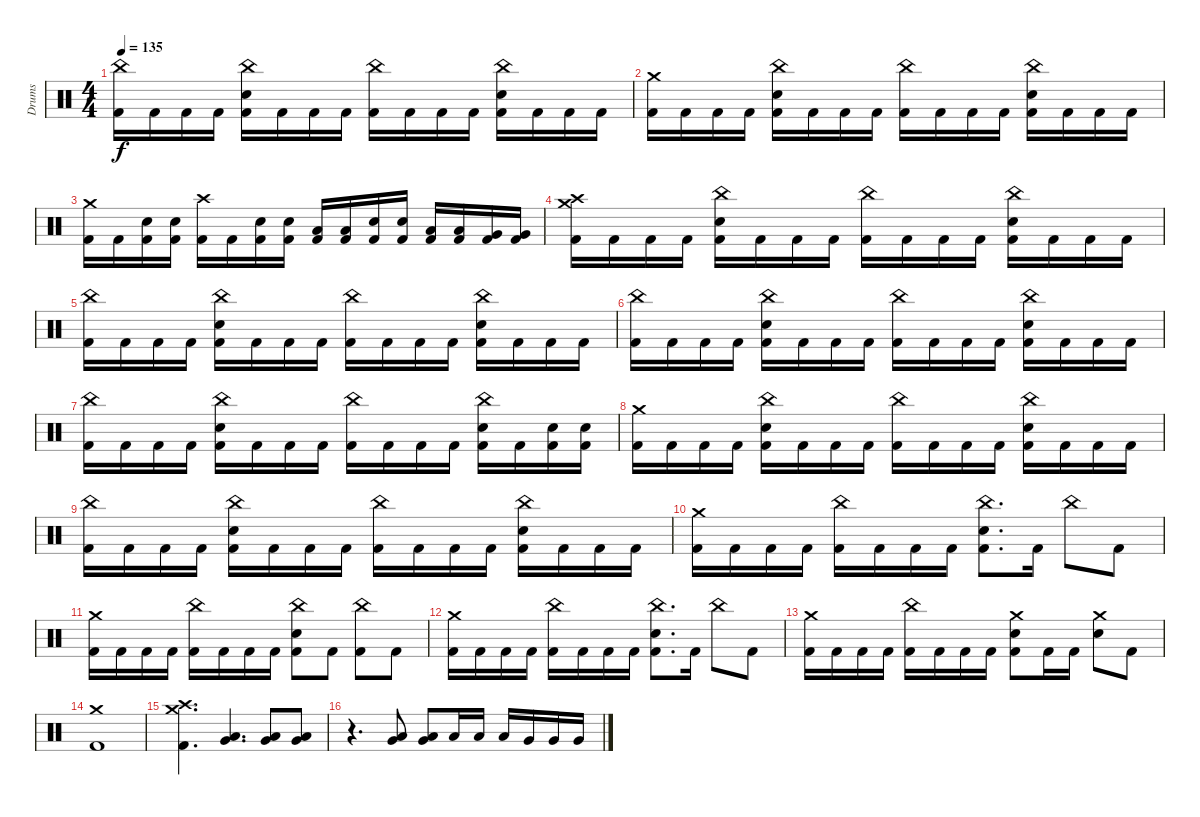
\track ("Drums" "Drums") {instrument percussion}
\staff {score}
\articulation defaults
\ts (4 4)
\tempo 135
\clef neutral
\ks c
("China (hit)" "Kick (hit) 2").16{dy f} "Kick (hit) 2".16 "Kick (hit) 2".16 "Kick (hit) 2".16 ("China (hit)" "Electric Snare (hit)" "Kick (hit) 2").16 "Kick (hit) 2".16 "Kick (hit) 2".16 "Kick (hit) 2".16 ("China (hit)" "Kick (hit) 2").16 "Kick (hit) 2".16 "Kick (hit) 2".16 "Kick (hit) 2".16 ("China (hit)" "Electric Snare (hit)" "Kick (hit) 2").16 "Kick (hit) 2".16 "Kick (hit) 2".16 "Kick (hit) 2".16 |
("Crash medium (hit)" "Kick (hit) 2").16 "Kick (hit) 2".16 "Kick (hit) 2".16 "Kick (hit) 2".16 ("China (hit)" "Electric Snare (hit)" "Kick (hit) 2").16 "Kick (hit) 2".16 "Kick (hit) 2".16 "Kick (hit) 2".16 ("China (hit)" "Kick (hit) 2").16 "Kick (hit) 2".16 "Kick (hit) 2".16 "Kick (hit) 2".16 ("China (hit)" "Electric Snare (hit)" "Kick (hit) 2").16 "Kick (hit) 2".16 "Kick (hit) 2".16 "Kick (hit) 2".16 |
("Crash medium (hit)" "Kick (hit) 2").16 "Kick (hit) 2".16 ("Electric Snare (hit)" "Kick (hit) 2").16 ("Electric Snare (hit)" "Kick (hit) 2").16 ("Crash high (hit)" "Kick (hit) 2").16 "Kick (hit) 2".16 ("Electric Snare (hit)" "Kick (hit) 2").16 ("Electric Snare (hit)" "Kick (hit) 2").16 ("Low Tom (hit)" "Kick (hit) 2").16 ("Low Tom (hit)" "Kick (hit) 2").16 ("Electric Snare (hit)" "Kick (hit) 2").16 ("Electric Snare (hit)" "Kick (hit) 2").16 ("Low Tom (hit)" "Kick (hit) 2").16 ("Low Tom (hit)" "Kick (hit) 2").16 ("Very Low Tom (hit)" "Kick (hit) 2").16 ("Very Low Tom (hit)" "Kick (hit) 2").16 |
("Crash high (hit)" "Crash medium (hit)" "Kick (hit) 2").16 "Kick (hit) 2".16 "Kick (hit) 2".16 "Kick (hit) 2".16 ("China (hit)" "Electric Snare (hit)" "Kick (hit) 2").16 "Kick (hit) 2".16 "Kick (hit) 2".16 "Kick (hit) 2".16 ("China (hit)" "Kick (hit) 2").16 "Kick (hit) 2".16 "Kick (hit) 2".16 "Kick (hit) 2".16 ("China (hit)" "Electric Snare (hit)" "Kick (hit) 2").16 "Kick (hit) 2".16 "Kick (hit) 2".16 "Kick (hit) 2".16 |
("China (hit)" "Kick (hit) 2").16 "Kick (hit) 2".16 "Kick (hit) 2".16 "Kick (hit) 2".16 ("China (hit)" "Electric Snare (hit)" "Kick (hit) 2").16 "Kick (hit) 2".16 "Kick (hit) 2".16 "Kick (hit) 2".16 ("China (hit)" "Kick (hit) 2").16 "Kick (hit) 2".16 "Kick (hit) 2".16 "Kick (hit) 2".16 ("China (hit)" "Electric Snare (hit)" "Kick (hit) 2").16 "Kick (hit) 2".16 "Kick (hit) 2".16 "Kick (hit) 2".16 |
("China (hit)" "Kick (hit) 2").16 "Kick (hit) 2".16 "Kick (hit) 2".16 "Kick (hit) 2".16 ("China (hit)" "Electric Snare (hit)" "Kick (hit) 2").16 "Kick (hit) 2".16 "Kick (hit) 2".16 "Kick (hit) 2".16 ("China (hit)" "Kick (hit) 2").16 "Kick (hit) 2".16 "Kick (hit) 2".16 "Kick (hit) 2".16 ("China (hit)" "Electric Snare (hit)" "Kick (hit) 2").16 "Kick (hit) 2".16 "Kick (hit) 2".16 "Kick (hit) 2".16 |
("China (hit)" "Kick (hit) 2").16 "Kick (hit) 2".16 "Kick (hit) 2".16 "Kick (hit) 2".16 ("China (hit)" "Electric Snare (hit)" "Kick (hit) 2").16 "Kick (hit) 2".16 "Kick (hit) 2".16 "Kick (hit) 2".16 ("China (hit)" "Kick (hit) 2").16 "Kick (hit) 2".16 "Kick (hit) 2".16 "Kick (hit) 2".16 ("China (hit)" "Electric Snare (hit)" "Kick (hit) 2").16 "Kick (hit) 2".16 ("Electric Snare (hit)" "Kick (hit) 2").16 ("Electric Snare (hit)" "Kick (hit) 2").16 |
("Crash medium (hit)" "Kick (hit) 2").16 "Kick (hit) 2".16 "Kick (hit) 2".16 "Kick (hit) 2".16 ("China (hit)" "Electric Snare (hit)" "Kick (hit) 2").16 "Kick (hit) 2".16 "Kick (hit) 2".16 "Kick (hit) 2".16 ("China (hit)" "Kick (hit) 2").16 "Kick (hit) 2".16 "Kick (hit) 2".16 "Kick (hit) 2".16 ("China (hit)" "Electric Snare (hit)" "Kick (hit) 2").16 "Kick (hit) 2".16 "Kick (hit) 2".16 "Kick (hit) 2".16 |
("China (hit)" "Kick (hit) 2").16 "Kick (hit) 2".16 "Kick (hit) 2".16 "Kick (hit) 2".16 ("China (hit)" "Electric Snare (hit)" "Kick (hit) 2").16 "Kick (hit) 2".16 "Kick (hit) 2".16 "Kick (hit) 2".16 ("China (hit)" "Kick (hit) 2").16 "Kick (hit) 2".16 "Kick (hit) 2".16 "Kick (hit) 2".16 ("China (hit)" "Electric Snare (hit)" "Kick (hit) 2").16 "Kick (hit) 2".16 "Kick (hit) 2".16 "Kick (hit) 2".16 |
("Crash medium (hit)" "Kick (hit) 2").16 "Kick (hit) 2".16 "Kick (hit) 2".16 "Kick (hit) 2".16 ("China (hit)" "Kick (hit) 2").16 "Kick (hit) 2".16 "Kick (hit) 2".16 "Kick (hit) 2".16 ("China (hit)" "Electric Snare (hit)" "Kick (hit) 2").8{d} "Kick (hit) 2".16 "China (hit)".8 "Kick (hit) 2".8 |
("Crash medium (hit)" "Kick (hit) 2").16 "Kick (hit) 2".16 "Kick (hit) 2".16 "Kick (hit) 2".16 ("China (hit)" "Kick (hit) 2").16 "Kick (hit) 2".16 "Kick (hit) 2".16 "Kick (hit) 2".16 ("China (hit)" "Electric Snare (hit)" "Kick (hit) 2").8 "Kick (hit) 2".8 ("China (hit)" "Kick (hit) 2").8 "Kick (hit) 2".8 |
("Crash medium (hit)" "Kick (hit) 2").16 "Kick (hit) 2".16 "Kick (hit) 2".16 "Kick (hit) 2".16 ("China (hit)" "Kick (hit) 2").16 "Kick (hit) 2".16 "Kick (hit) 2".16 "Kick (hit) 2".16 ("China (hit)" "Electric Snare (hit)" "Kick (hit) 2").8{d} "Kick (hit) 2".16 "China (hit)".8 "Kick (hit) 2".8 |
("Crash medium (hit)" "Kick (hit) 2").16 "Kick (hit) 2".16 "Kick (hit) 2".16 "Kick (hit) 2".16 ("China (hit)" "Kick (hit) 2").16 "Kick (hit) 2".16 "Kick (hit) 2".16 "Kick (hit) 2".16 ("Crash medium (hit)" "Electric Snare (hit)" "Kick (hit) 2").8 "Kick (hit) 2".16 "Kick (hit) 2".16 ("Crash medium (hit)" "Electric Snare (hit)").8 "Kick (hit) 2".8 |
("Crash medium (hit)" "Kick (hit) 2").1 |
("Crash medium (hit)" "Crash high (hit)" "Kick (hit) 2").4{d} ("Low Tom (hit)" "Very Low Tom (hit)").4{d} ("Low Tom (hit)" "Very Low Tom (hit)").8 ("Low Tom (hit)" "Very Low Tom (hit)").8 |
r.4{d} ("Low Tom (hit)" "Very Low Tom (hit)").8 ("Low Tom (hit)" "Very Low Tom (hit)").8 "Low Tom (hit)".16 "Low Tom (hit)".16 "Low Tom (hit)".16 "Very Low Tom (hit)".16 "Very Low Tom (hit)".16 "Very Low Tom (hit)".16
